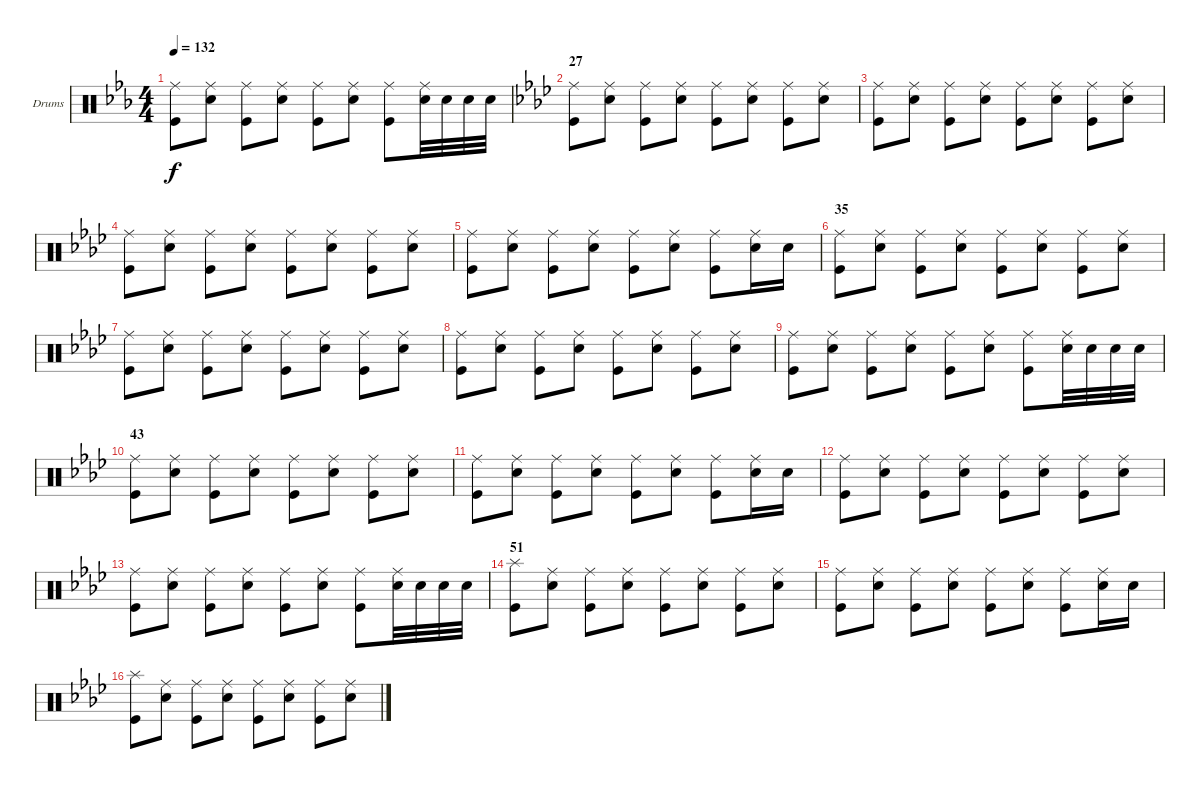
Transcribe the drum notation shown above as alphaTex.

\bracketExtendMode groupsimilarinstruments
\firstSystemTrackNameOrientation horizontal
\otherSystemsTrackNameOrientation horizontal
\track ("Drumkit" "Drums") {instrument percussion}
\staff {score}
\articulation defaults
\ts (4 4)
\tempo 132
\clef neutral
\ks eb
("Kick (hit)" "Ride (middle)").8{dy f} ("Snare (hit) 2" "Ride (middle)").8 ("Kick (hit)" "Ride (middle)").8 ("Snare (hit) 2" "Ride (middle)").8 ("Kick (hit)" "Ride (middle)").8 ("Snare (hit) 2" "Ride (middle)").8 ("Kick (hit)" "Ride (middle)").8 ("Snare (hit) 2" "Ride (middle)").32 "Snare (hit) 2".32 "Snare (hit) 2".32 "Snare (hit) 2".32 |
\section ("" "27")
\ks ab
("Kick (hit)" "Ride (middle)").8 ("Snare (hit) 2" "Ride (middle)").8 ("Kick (hit)" "Ride (middle)").8 ("Snare (hit) 2" "Ride (middle)").8 ("Kick (hit)" "Ride (middle)").8 ("Snare (hit) 2" "Ride (middle)").8 ("Kick (hit)" "Ride (middle)").8 ("Snare (hit) 2" "Ride (middle)").8 |
("Kick (hit)" "Ride (middle)").8 ("Snare (hit) 2" "Ride (middle)").8 ("Kick (hit)" "Ride (middle)").8 ("Snare (hit) 2" "Ride (middle)").8 ("Kick (hit)" "Ride (middle)").8 ("Snare (hit) 2" "Ride (middle)").8 ("Kick (hit)" "Ride (middle)").8 ("Snare (hit) 2" "Ride (middle)").8 |
("Kick (hit)" "Ride (middle)").8 ("Snare (hit) 2" "Ride (middle)").8 ("Kick (hit)" "Ride (middle)").8 ("Snare (hit) 2" "Ride (middle)").8 ("Kick (hit)" "Ride (middle)").8 ("Snare (hit) 2" "Ride (middle)").8 ("Kick (hit)" "Ride (middle)").8 ("Snare (hit) 2" "Ride (middle)").8 |
("Kick (hit)" "Ride (middle)").8 ("Snare (hit) 2" "Ride (middle)").8 ("Kick (hit)" "Ride (middle)").8 ("Snare (hit) 2" "Ride (middle)").8 ("Kick (hit)" "Ride (middle)").8 ("Snare (hit) 2" "Ride (middle)").8 ("Kick (hit)" "Ride (middle)").8 ("Snare (hit) 2" "Ride (middle)").16 "Snare (hit) 2".16 |
\section ("" "35")
("Kick (hit)" "Ride (middle)").8 ("Snare (hit) 2" "Ride (middle)").8 ("Kick (hit)" "Ride (middle)").8 ("Snare (hit) 2" "Ride (middle)").8 ("Kick (hit)" "Ride (middle)").8 ("Snare (hit) 2" "Ride (middle)").8 ("Kick (hit)" "Ride (middle)").8 ("Snare (hit) 2" "Ride (middle)").8 |
("Kick (hit)" "Ride (middle)").8 ("Snare (hit) 2" "Ride (middle)").8 ("Kick (hit)" "Ride (middle)").8 ("Snare (hit) 2" "Ride (middle)").8 ("Kick (hit)" "Ride (middle)").8 ("Snare (hit) 2" "Ride (middle)").8 ("Kick (hit)" "Ride (middle)").8 ("Snare (hit) 2" "Ride (middle)").8 |
("Kick (hit)" "Ride (middle)").8 ("Snare (hit) 2" "Ride (middle)").8 ("Kick (hit)" "Ride (middle)").8 ("Snare (hit) 2" "Ride (middle)").8 ("Kick (hit)" "Ride (middle)").8 ("Snare (hit) 2" "Ride (middle)").8 ("Kick (hit)" "Ride (middle)").8 ("Snare (hit) 2" "Ride (middle)").8 |
("Kick (hit)" "Ride (middle)").8 ("Snare (hit) 2" "Ride (middle)").8 ("Kick (hit)" "Ride (middle)").8 ("Snare (hit) 2" "Ride (middle)").8 ("Kick (hit)" "Ride (middle)").8 ("Snare (hit) 2" "Ride (middle)").8 ("Kick (hit)" "Ride (middle)").8 ("Snare (hit) 2" "Ride (middle)").32 "Snare (hit) 2".32 "Snare (hit) 2".32 "Snare (hit) 2".32 |
\section ("" "43")
("Kick (hit)" "Ride (middle)").8 ("Snare (hit) 2" "Ride (middle)").8 ("Kick (hit)" "Ride (middle)").8 ("Snare (hit) 2" "Ride (middle)").8 ("Kick (hit)" "Ride (middle)").8 ("Snare (hit) 2" "Ride (middle)").8 ("Kick (hit)" "Ride (middle)").8 ("Snare (hit) 2" "Ride (middle)").8 |
("Kick (hit)" "Ride (middle)").8 ("Snare (hit) 2" "Ride (middle)").8 ("Kick (hit)" "Ride (middle)").8 ("Snare (hit) 2" "Ride (middle)").8 ("Kick (hit)" "Ride (middle)").8 ("Snare (hit) 2" "Ride (middle)").8 ("Kick (hit)" "Ride (middle)").8 ("Snare (hit) 2" "Ride (middle)").16 "Snare (hit) 2".16 |
("Kick (hit)" "Ride (middle)").8 ("Snare (hit) 2" "Ride (middle)").8 ("Kick (hit)" "Ride (middle)").8 ("Snare (hit) 2" "Ride (middle)").8 ("Kick (hit)" "Ride (middle)").8 ("Snare (hit) 2" "Ride (middle)").8 ("Kick (hit)" "Ride (middle)").8 ("Snare (hit) 2" "Ride (middle)").8 |
("Kick (hit)" "Ride (middle)").8 ("Snare (hit) 2" "Ride (middle)").8 ("Kick (hit)" "Ride (middle)").8 ("Snare (hit) 2" "Ride (middle)").8 ("Kick (hit)" "Ride (middle)").8 ("Snare (hit) 2" "Ride (middle)").8 ("Kick (hit)" "Ride (middle)").8 ("Snare (hit) 2" "Ride (middle)").32 "Snare (hit) 2".32 "Snare (hit) 2".32 "Snare (hit) 2".32 |
\section ("" "51")
("Kick (hit)" "Splash (hit)").8 ("Snare (hit) 2" "Ride (middle)").8 ("Kick (hit)" "Ride (middle)").8 ("Snare (hit) 2" "Ride (middle)").8 ("Kick (hit)" "Ride (middle)").8 ("Snare (hit) 2" "Ride (middle)").8 ("Kick (hit)" "Ride (middle)").8 ("Snare (hit) 2" "Ride (middle)").8 |
("Kick (hit)" "Ride (middle)").8 ("Snare (hit) 2" "Ride (middle)").8 ("Kick (hit)" "Ride (middle)").8 ("Snare (hit) 2" "Ride (middle)").8 ("Kick (hit)" "Ride (middle)").8 ("Snare (hit) 2" "Ride (middle)").8 ("Kick (hit)" "Ride (middle)").8 ("Snare (hit) 2" "Ride (middle)").16 "Snare (hit) 2".16 |
("Kick (hit)" "Splash (hit)").8 ("Snare (hit) 2" "Ride (middle)").8 ("Kick (hit)" "Ride (middle)").8 ("Snare (hit) 2" "Ride (middle)").8 ("Kick (hit)" "Ride (middle)").8 ("Snare (hit) 2" "Ride (middle)").8 ("Kick (hit)" "Ride (middle)").8 ("Snare (hit) 2" "Ride (middle)").8
